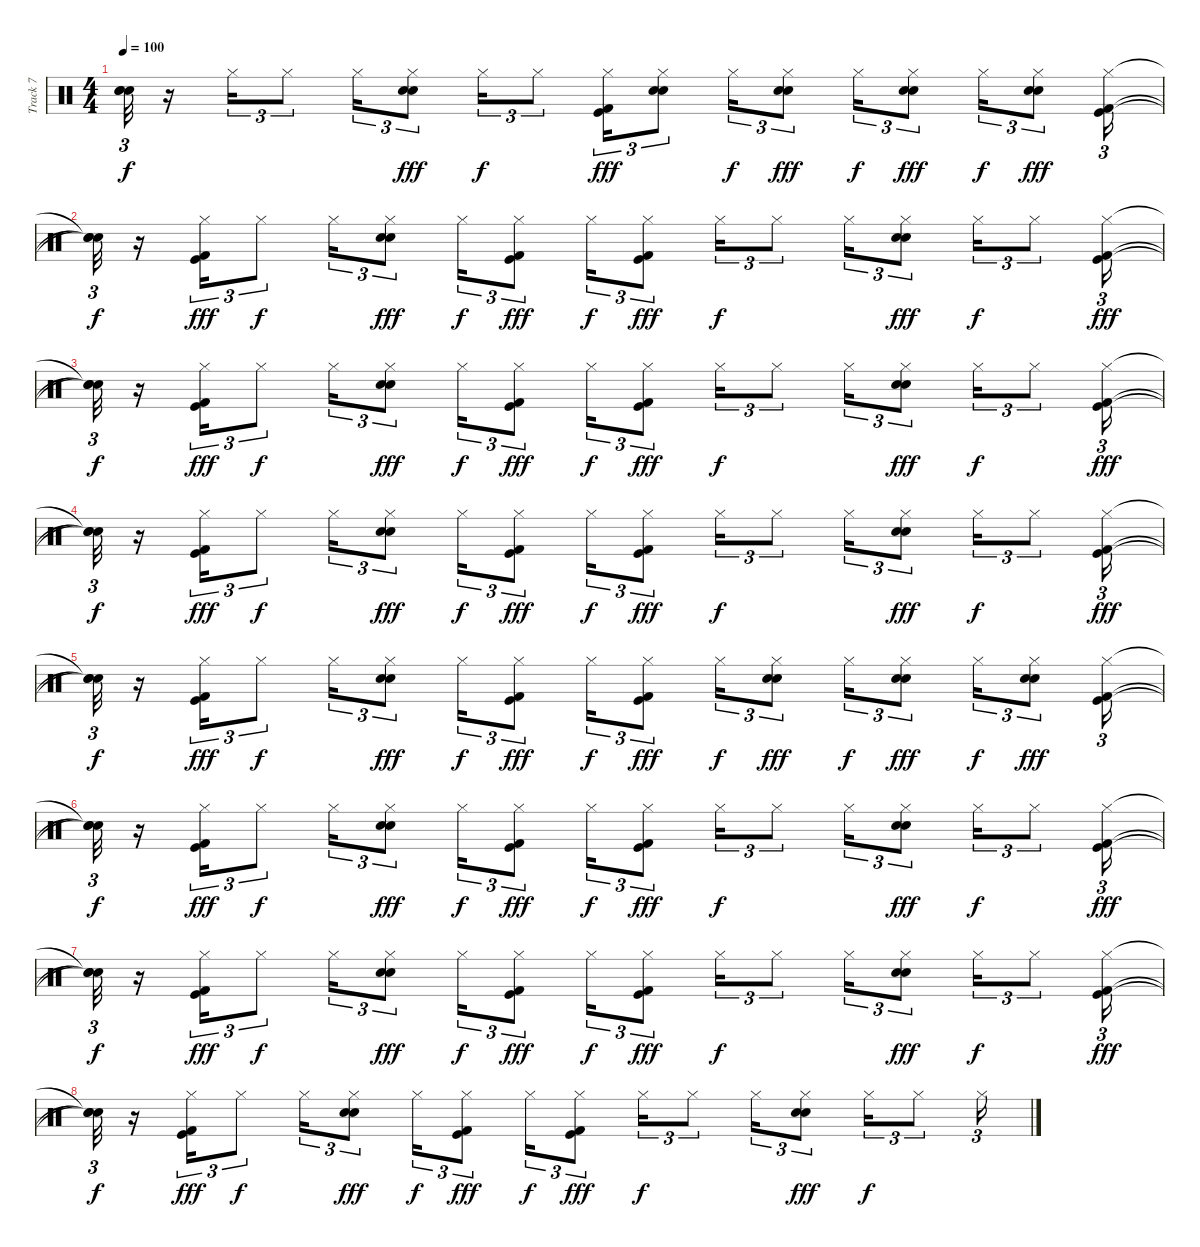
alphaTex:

\track ("Track 7" "Track 7") {instrument percussion}
\staff {score}
\articulation defaults
\ts (4 4)
\tempo 100
\clef neutral
\ks c
("Snare (hit)"{t} "Snare (hit)"{t} "Snare (hit)"{t}).32{tu (3 2) dy f} r.16 "Hi-Hat (closed)".16{tu (3 2)} "Hi-Hat (closed)".8{tu (3 2)} "Hi-Hat (closed)".16{tu (3 2)} ("Hi-Hat (closed)" "Snare (hit) 2" "Electric Snare (hit)").8{tu (3 2) dy fff} "Hi-Hat (closed)".16{tu (3 2) dy f} "Hi-Hat (closed)".8{tu (3 2)} ("Kick (hit)" "Kick (hit) 2" "Hi-Hat (closed)").16{tu (3 2) dy fff} ("Electric Snare (hit)" "Snare (hit) 2" "Hi-Hat (closed)").8{tu (3 2)} "Hi-Hat (closed)".16{tu (3 2) dy f} ("Snare (hit) 2" "Electric Snare (hit)" "Hi-Hat (closed)").8{tu (3 2) dy fff} "Hi-Hat (closed)".16{tu (3 2) dy f} ("Snare (hit) 2" "Electric Snare (hit)" "Hi-Hat (closed)").8{tu (3 2) dy fff} "Hi-Hat (closed)".16{tu (3 2) dy f} ("Snare (hit) 2" "Electric Snare (hit)" "Hi-Hat (closed)").8{tu (3 2) dy fff} ("Hi-Hat (closed)" "Kick (hit)" "Kick (hit) 2").16{tu (3 2)} |
("Snare (hit)"{t} "Snare (hit)"{t} "Snare (hit)"{t}).32{tu (3 2) dy f} r.16 ("Hi-Hat (closed)" "Kick (hit)" "Kick (hit) 2").16{tu (3 2) dy fff} "Hi-Hat (closed)".8{tu (3 2) dy f} "Hi-Hat (closed)".16{tu (3 2)} ("Hi-Hat (closed)" "Snare (hit) 2" "Electric Snare (hit)").8{tu (3 2) dy fff} "Hi-Hat (closed)".16{tu (3 2) dy f} ("Hi-Hat (closed)" "Kick (hit)" "Kick (hit) 2").8{tu (3 2) dy fff} "Hi-Hat (closed)".16{tu (3 2) dy f} ("Hi-Hat (closed)" "Kick (hit)" "Kick (hit) 2").8{tu (3 2) dy fff} "Hi-Hat (closed)".16{tu (3 2) dy f} "Hi-Hat (closed)".8{tu (3 2)} "Hi-Hat (closed)".16{tu (3 2)} ("Hi-Hat (closed)" "Snare (hit) 2" "Electric Snare (hit)").8{tu (3 2) dy fff} "Hi-Hat (closed)".16{tu (3 2) dy f} "Hi-Hat (closed)".8{tu (3 2)} ("Hi-Hat (closed)" "Kick (hit)" "Kick (hit) 2").16{tu (3 2) dy fff} |
("Snare (hit)"{t} "Snare (hit)"{t} "Snare (hit)"{t}).32{tu (3 2) dy f} r.16 ("Hi-Hat (closed)" "Kick (hit)" "Kick (hit) 2").16{tu (3 2) dy fff} "Hi-Hat (closed)".8{tu (3 2) dy f} "Hi-Hat (closed)".16{tu (3 2)} ("Hi-Hat (closed)" "Snare (hit) 2" "Electric Snare (hit)").8{tu (3 2) dy fff} "Hi-Hat (closed)".16{tu (3 2) dy f} ("Hi-Hat (closed)" "Kick (hit)" "Kick (hit) 2").8{tu (3 2) dy fff} "Hi-Hat (closed)".16{tu (3 2) dy f} ("Hi-Hat (closed)" "Kick (hit)" "Kick (hit) 2").8{tu (3 2) dy fff} "Hi-Hat (closed)".16{tu (3 2) dy f} "Hi-Hat (closed)".8{tu (3 2)} "Hi-Hat (closed)".16{tu (3 2)} ("Hi-Hat (closed)" "Snare (hit) 2" "Electric Snare (hit)").8{tu (3 2) dy fff} "Hi-Hat (closed)".16{tu (3 2) dy f} "Hi-Hat (closed)".8{tu (3 2)} ("Hi-Hat (closed)" "Kick (hit)" "Kick (hit) 2").16{tu (3 2) dy fff} |
("Snare (hit)"{t} "Snare (hit)"{t} "Snare (hit)"{t}).32{tu (3 2) dy f} r.16 ("Hi-Hat (closed)" "Kick (hit)" "Kick (hit) 2").16{tu (3 2) dy fff} "Hi-Hat (closed)".8{tu (3 2) dy f} "Hi-Hat (closed)".16{tu (3 2)} ("Hi-Hat (closed)" "Snare (hit) 2" "Electric Snare (hit)").8{tu (3 2) dy fff} "Hi-Hat (closed)".16{tu (3 2) dy f} ("Hi-Hat (closed)" "Kick (hit)" "Kick (hit) 2").8{tu (3 2) dy fff} "Hi-Hat (closed)".16{tu (3 2) dy f} ("Hi-Hat (closed)" "Kick (hit)" "Kick (hit) 2").8{tu (3 2) dy fff} "Hi-Hat (closed)".16{tu (3 2) dy f} "Hi-Hat (closed)".8{tu (3 2)} "Hi-Hat (closed)".16{tu (3 2)} ("Hi-Hat (closed)" "Snare (hit) 2" "Electric Snare (hit)").8{tu (3 2) dy fff} "Hi-Hat (closed)".16{tu (3 2) dy f} "Hi-Hat (closed)".8{tu (3 2)} ("Hi-Hat (closed)" "Kick (hit)" "Kick (hit) 2").16{tu (3 2) dy fff} |
("Snare (hit)"{t} "Snare (hit)"{t} "Snare (hit)"{t}).32{tu (3 2) dy f} r.16 ("Hi-Hat (closed)" "Kick (hit)" "Kick (hit) 2").16{tu (3 2) dy fff} "Hi-Hat (closed)".8{tu (3 2) dy f} "Hi-Hat (closed)".16{tu (3 2)} ("Hi-Hat (closed)" "Snare (hit) 2" "Electric Snare (hit)").8{tu (3 2) dy fff} "Hi-Hat (closed)".16{tu (3 2) dy f} ("Hi-Hat (closed)" "Kick (hit)" "Kick (hit) 2").8{tu (3 2) dy fff} "Hi-Hat (closed)".16{tu (3 2) dy f} ("Hi-Hat (closed)" "Kick (hit)" "Kick (hit) 2").8{tu (3 2) dy fff} "Hi-Hat (closed)".16{tu (3 2) dy f} ("Snare (hit) 2" "Electric Snare (hit)" "Hi-Hat (closed)").8{tu (3 2) dy fff} "Hi-Hat (closed)".16{tu (3 2) dy f} ("Hi-Hat (closed)" "Snare (hit) 2" "Electric Snare (hit)").8{tu (3 2) dy fff} "Hi-Hat (closed)".16{tu (3 2) dy f} ("Snare (hit) 2" "Electric Snare (hit)" "Hi-Hat (closed)").8{tu (3 2) dy fff} ("Hi-Hat (closed)" "Kick (hit)" "Kick (hit) 2").16{tu (3 2)} |
("Snare (hit)"{t} "Snare (hit)"{t} "Snare (hit)"{t}).32{tu (3 2) dy f} r.16 ("Hi-Hat (closed)" "Kick (hit)" "Kick (hit) 2").16{tu (3 2) dy fff} "Hi-Hat (closed)".8{tu (3 2) dy f} "Hi-Hat (closed)".16{tu (3 2)} ("Hi-Hat (closed)" "Snare (hit) 2" "Electric Snare (hit)").8{tu (3 2) dy fff} "Hi-Hat (closed)".16{tu (3 2) dy f} ("Hi-Hat (closed)" "Kick (hit)" "Kick (hit) 2").8{tu (3 2) dy fff} "Hi-Hat (closed)".16{tu (3 2) dy f} ("Hi-Hat (closed)" "Kick (hit)" "Kick (hit) 2").8{tu (3 2) dy fff} "Hi-Hat (closed)".16{tu (3 2) dy f} "Hi-Hat (closed)".8{tu (3 2)} "Hi-Hat (closed)".16{tu (3 2)} ("Hi-Hat (closed)" "Snare (hit) 2" "Electric Snare (hit)").8{tu (3 2) dy fff} "Hi-Hat (closed)".16{tu (3 2) dy f} "Hi-Hat (closed)".8{tu (3 2)} ("Hi-Hat (closed)" "Kick (hit)" "Kick (hit) 2").16{tu (3 2) dy fff} |
("Snare (hit)"{t} "Snare (hit)"{t} "Snare (hit)"{t}).32{tu (3 2) dy f} r.16 ("Hi-Hat (closed)" "Kick (hit)" "Kick (hit) 2").16{tu (3 2) dy fff} "Hi-Hat (closed)".8{tu (3 2) dy f} "Hi-Hat (closed)".16{tu (3 2)} ("Hi-Hat (closed)" "Snare (hit) 2" "Electric Snare (hit)").8{tu (3 2) dy fff} "Hi-Hat (closed)".16{tu (3 2) dy f} ("Hi-Hat (closed)" "Kick (hit)" "Kick (hit) 2").8{tu (3 2) dy fff} "Hi-Hat (closed)".16{tu (3 2) dy f} ("Hi-Hat (closed)" "Kick (hit)" "Kick (hit) 2").8{tu (3 2) dy fff} "Hi-Hat (closed)".16{tu (3 2) dy f} "Hi-Hat (closed)".8{tu (3 2)} "Hi-Hat (closed)".16{tu (3 2)} ("Hi-Hat (closed)" "Snare (hit) 2" "Electric Snare (hit)").8{tu (3 2) dy fff} "Hi-Hat (closed)".16{tu (3 2) dy f} "Hi-Hat (closed)".8{tu (3 2)} ("Hi-Hat (closed)" "Kick (hit)" "Kick (hit) 2").16{tu (3 2) dy fff} |
("Snare (hit)"{t} "Snare (hit)"{t} "Snare (hit)"{t}).32{tu (3 2) dy f} r.16 ("Hi-Hat (closed)" "Kick (hit)" "Kick (hit) 2").16{tu (3 2) dy fff} "Hi-Hat (closed)".8{tu (3 2) dy f} "Hi-Hat (closed)".16{tu (3 2)} ("Hi-Hat (closed)" "Snare (hit) 2" "Electric Snare (hit)").8{tu (3 2) dy fff} "Hi-Hat (closed)".16{tu (3 2) dy f} ("Hi-Hat (closed)" "Kick (hit)" "Kick (hit) 2").8{tu (3 2) dy fff} "Hi-Hat (closed)".16{tu (3 2) dy f} ("Hi-Hat (closed)" "Kick (hit)" "Kick (hit) 2").8{tu (3 2) dy fff} "Hi-Hat (closed)".16{tu (3 2) dy f} "Hi-Hat (closed)".8{tu (3 2)} "Hi-Hat (closed)".16{tu (3 2)} ("Hi-Hat (closed)" "Snare (hit) 2" "Electric Snare (hit)").8{tu (3 2) dy fff} "Hi-Hat (closed)".16{tu (3 2) dy f} "Hi-Hat (closed)".8{tu (3 2)} "Hi-Hat (closed)".16{tu (3 2)}
